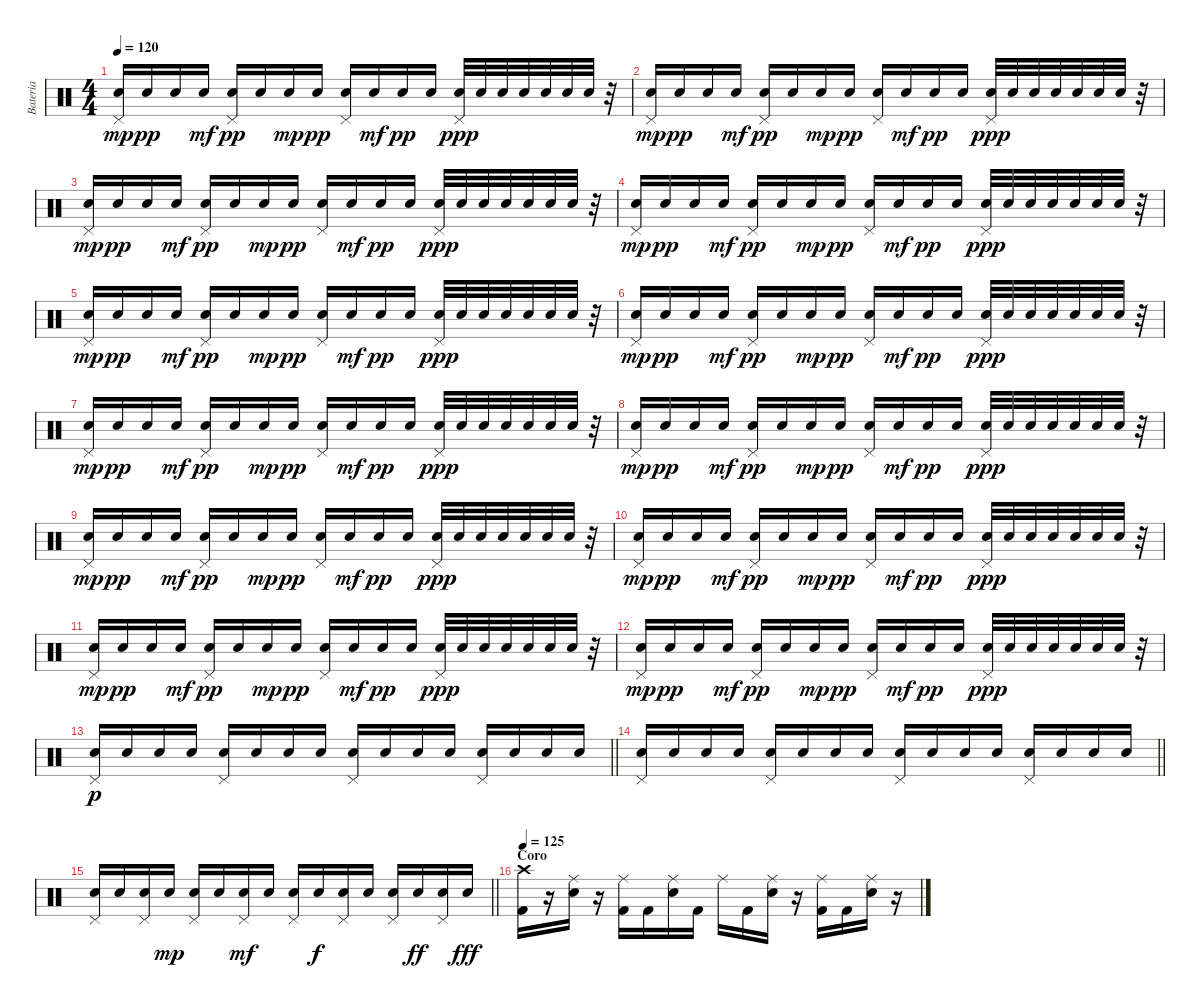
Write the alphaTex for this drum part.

\track ("Bateria" "Bateria") {instrument percussion}
\staff {score}
\articulation defaults
\ts (4 4)
\tempo 120
\clef neutral
\ks c
("Pedal Hi-Hat (hit)" "Electric Snare (hit)").16{dy mp} "Electric Snare (hit)".16{dy pp} "Electric Snare (hit)".16 "Electric Snare (hit)".16{dy mf} ("Pedal Hi-Hat (hit)" "Electric Snare (hit)").16{dy pp} "Electric Snare (hit)".16 "Electric Snare (hit)".16{dy mp} "Electric Snare (hit)".16{dy pp} ("Pedal Hi-Hat (hit)" "Electric Snare (hit)").16 "Electric Snare (hit)".16{dy mf} "Electric Snare (hit)".16{dy pp} "Electric Snare (hit)".16 ("Pedal Hi-Hat (hit)" "Electric Snare (hit)").32{dy ppp} "Electric Snare (hit)".32 "Electric Snare (hit)".32 "Electric Snare (hit)".32 "Electric Snare (hit)".32 "Electric Snare (hit)".32 "Electric Snare (hit)".32 r.32 |
("Pedal Hi-Hat (hit)" "Electric Snare (hit)").16{dy mp} "Electric Snare (hit)".16{dy pp} "Electric Snare (hit)".16 "Electric Snare (hit)".16{dy mf} ("Pedal Hi-Hat (hit)" "Electric Snare (hit)").16{dy pp} "Electric Snare (hit)".16 "Electric Snare (hit)".16{dy mp} "Electric Snare (hit)".16{dy pp} ("Pedal Hi-Hat (hit)" "Electric Snare (hit)").16 "Electric Snare (hit)".16{dy mf} "Electric Snare (hit)".16{dy pp} "Electric Snare (hit)".16 ("Pedal Hi-Hat (hit)" "Electric Snare (hit)").32{dy ppp} "Electric Snare (hit)".32 "Electric Snare (hit)".32 "Electric Snare (hit)".32 "Electric Snare (hit)".32 "Electric Snare (hit)".32 "Electric Snare (hit)".32 r.32 |
("Pedal Hi-Hat (hit)" "Electric Snare (hit)").16{dy mp} "Electric Snare (hit)".16{dy pp} "Electric Snare (hit)".16 "Electric Snare (hit)".16{dy mf} ("Pedal Hi-Hat (hit)" "Electric Snare (hit)").16{dy pp} "Electric Snare (hit)".16 "Electric Snare (hit)".16{dy mp} "Electric Snare (hit)".16{dy pp} ("Pedal Hi-Hat (hit)" "Electric Snare (hit)").16 "Electric Snare (hit)".16{dy mf} "Electric Snare (hit)".16{dy pp} "Electric Snare (hit)".16 ("Pedal Hi-Hat (hit)" "Electric Snare (hit)").32{dy ppp} "Electric Snare (hit)".32 "Electric Snare (hit)".32 "Electric Snare (hit)".32 "Electric Snare (hit)".32 "Electric Snare (hit)".32 "Electric Snare (hit)".32 r.32 |
("Pedal Hi-Hat (hit)" "Electric Snare (hit)").16{dy mp} "Electric Snare (hit)".16{dy pp} "Electric Snare (hit)".16 "Electric Snare (hit)".16{dy mf} ("Pedal Hi-Hat (hit)" "Electric Snare (hit)").16{dy pp} "Electric Snare (hit)".16 "Electric Snare (hit)".16{dy mp} "Electric Snare (hit)".16{dy pp} ("Pedal Hi-Hat (hit)" "Electric Snare (hit)").16 "Electric Snare (hit)".16{dy mf} "Electric Snare (hit)".16{dy pp} "Electric Snare (hit)".16 ("Pedal Hi-Hat (hit)" "Electric Snare (hit)").32{dy ppp} "Electric Snare (hit)".32 "Electric Snare (hit)".32 "Electric Snare (hit)".32 "Electric Snare (hit)".32 "Electric Snare (hit)".32 "Electric Snare (hit)".32 r.32 |
("Pedal Hi-Hat (hit)" "Electric Snare (hit)").16{dy mp} "Electric Snare (hit)".16{dy pp} "Electric Snare (hit)".16 "Electric Snare (hit)".16{dy mf} ("Pedal Hi-Hat (hit)" "Electric Snare (hit)").16{dy pp} "Electric Snare (hit)".16 "Electric Snare (hit)".16{dy mp} "Electric Snare (hit)".16{dy pp} ("Pedal Hi-Hat (hit)" "Electric Snare (hit)").16 "Electric Snare (hit)".16{dy mf} "Electric Snare (hit)".16{dy pp} "Electric Snare (hit)".16 ("Pedal Hi-Hat (hit)" "Electric Snare (hit)").32{dy ppp} "Electric Snare (hit)".32 "Electric Snare (hit)".32 "Electric Snare (hit)".32 "Electric Snare (hit)".32 "Electric Snare (hit)".32 "Electric Snare (hit)".32 r.32 |
("Pedal Hi-Hat (hit)" "Electric Snare (hit)").16{dy mp} "Electric Snare (hit)".16{dy pp} "Electric Snare (hit)".16 "Electric Snare (hit)".16{dy mf} ("Pedal Hi-Hat (hit)" "Electric Snare (hit)").16{dy pp} "Electric Snare (hit)".16 "Electric Snare (hit)".16{dy mp} "Electric Snare (hit)".16{dy pp} ("Pedal Hi-Hat (hit)" "Electric Snare (hit)").16 "Electric Snare (hit)".16{dy mf} "Electric Snare (hit)".16{dy pp} "Electric Snare (hit)".16 ("Pedal Hi-Hat (hit)" "Electric Snare (hit)").32{dy ppp} "Electric Snare (hit)".32 "Electric Snare (hit)".32 "Electric Snare (hit)".32 "Electric Snare (hit)".32 "Electric Snare (hit)".32 "Electric Snare (hit)".32 r.32 |
("Pedal Hi-Hat (hit)" "Electric Snare (hit)").16{dy mp} "Electric Snare (hit)".16{dy pp} "Electric Snare (hit)".16 "Electric Snare (hit)".16{dy mf} ("Pedal Hi-Hat (hit)" "Electric Snare (hit)").16{dy pp} "Electric Snare (hit)".16 "Electric Snare (hit)".16{dy mp} "Electric Snare (hit)".16{dy pp} ("Pedal Hi-Hat (hit)" "Electric Snare (hit)").16 "Electric Snare (hit)".16{dy mf} "Electric Snare (hit)".16{dy pp} "Electric Snare (hit)".16 ("Pedal Hi-Hat (hit)" "Electric Snare (hit)").32{dy ppp} "Electric Snare (hit)".32 "Electric Snare (hit)".32 "Electric Snare (hit)".32 "Electric Snare (hit)".32 "Electric Snare (hit)".32 "Electric Snare (hit)".32 r.32 |
("Pedal Hi-Hat (hit)" "Electric Snare (hit)").16{dy mp} "Electric Snare (hit)".16{dy pp} "Electric Snare (hit)".16 "Electric Snare (hit)".16{dy mf} ("Pedal Hi-Hat (hit)" "Electric Snare (hit)").16{dy pp} "Electric Snare (hit)".16 "Electric Snare (hit)".16{dy mp} "Electric Snare (hit)".16{dy pp} ("Pedal Hi-Hat (hit)" "Electric Snare (hit)").16 "Electric Snare (hit)".16{dy mf} "Electric Snare (hit)".16{dy pp} "Electric Snare (hit)".16 ("Pedal Hi-Hat (hit)" "Electric Snare (hit)").32{dy ppp} "Electric Snare (hit)".32 "Electric Snare (hit)".32 "Electric Snare (hit)".32 "Electric Snare (hit)".32 "Electric Snare (hit)".32 "Electric Snare (hit)".32 r.32 |
("Pedal Hi-Hat (hit)" "Electric Snare (hit)").16{dy mp} "Electric Snare (hit)".16{dy pp} "Electric Snare (hit)".16 "Electric Snare (hit)".16{dy mf} ("Pedal Hi-Hat (hit)" "Electric Snare (hit)").16{dy pp} "Electric Snare (hit)".16 "Electric Snare (hit)".16{dy mp} "Electric Snare (hit)".16{dy pp} ("Pedal Hi-Hat (hit)" "Electric Snare (hit)").16 "Electric Snare (hit)".16{dy mf} "Electric Snare (hit)".16{dy pp} "Electric Snare (hit)".16 ("Pedal Hi-Hat (hit)" "Electric Snare (hit)").32{dy ppp} "Electric Snare (hit)".32 "Electric Snare (hit)".32 "Electric Snare (hit)".32 "Electric Snare (hit)".32 "Electric Snare (hit)".32 "Electric Snare (hit)".32 r.32 |
("Pedal Hi-Hat (hit)" "Electric Snare (hit)").16{dy mp} "Electric Snare (hit)".16{dy pp} "Electric Snare (hit)".16 "Electric Snare (hit)".16{dy mf} ("Pedal Hi-Hat (hit)" "Electric Snare (hit)").16{dy pp} "Electric Snare (hit)".16 "Electric Snare (hit)".16{dy mp} "Electric Snare (hit)".16{dy pp} ("Pedal Hi-Hat (hit)" "Electric Snare (hit)").16 "Electric Snare (hit)".16{dy mf} "Electric Snare (hit)".16{dy pp} "Electric Snare (hit)".16 ("Pedal Hi-Hat (hit)" "Electric Snare (hit)").32{dy ppp} "Electric Snare (hit)".32 "Electric Snare (hit)".32 "Electric Snare (hit)".32 "Electric Snare (hit)".32 "Electric Snare (hit)".32 "Electric Snare (hit)".32 r.32 |
("Pedal Hi-Hat (hit)" "Electric Snare (hit)").16{dy mp} "Electric Snare (hit)".16{dy pp} "Electric Snare (hit)".16 "Electric Snare (hit)".16{dy mf} ("Pedal Hi-Hat (hit)" "Electric Snare (hit)").16{dy pp} "Electric Snare (hit)".16 "Electric Snare (hit)".16{dy mp} "Electric Snare (hit)".16{dy pp} ("Pedal Hi-Hat (hit)" "Electric Snare (hit)").16 "Electric Snare (hit)".16{dy mf} "Electric Snare (hit)".16{dy pp} "Electric Snare (hit)".16 ("Pedal Hi-Hat (hit)" "Electric Snare (hit)").32{dy ppp} "Electric Snare (hit)".32 "Electric Snare (hit)".32 "Electric Snare (hit)".32 "Electric Snare (hit)".32 "Electric Snare (hit)".32 "Electric Snare (hit)".32 r.32 |
("Pedal Hi-Hat (hit)" "Electric Snare (hit)").16{dy mp} "Electric Snare (hit)".16{dy pp} "Electric Snare (hit)".16 "Electric Snare (hit)".16{dy mf} ("Pedal Hi-Hat (hit)" "Electric Snare (hit)").16{dy pp} "Electric Snare (hit)".16 "Electric Snare (hit)".16{dy mp} "Electric Snare (hit)".16{dy pp} ("Pedal Hi-Hat (hit)" "Electric Snare (hit)").16 "Electric Snare (hit)".16{dy mf} "Electric Snare (hit)".16{dy pp} "Electric Snare (hit)".16 ("Pedal Hi-Hat (hit)" "Electric Snare (hit)").32{dy ppp} "Electric Snare (hit)".32 "Electric Snare (hit)".32 "Electric Snare (hit)".32 "Electric Snare (hit)".32 "Electric Snare (hit)".32 "Electric Snare (hit)".32 r.32 |
\barLineRight lightlight
("Pedal Hi-Hat (hit)" "Electric Snare (hit)").16{dy p} "Electric Snare (hit)".16 "Electric Snare (hit)".16 "Electric Snare (hit)".16 ("Pedal Hi-Hat (hit)" "Electric Snare (hit)").16 "Electric Snare (hit)".16 "Electric Snare (hit)".16 "Electric Snare (hit)".16 ("Pedal Hi-Hat (hit)" "Electric Snare (hit)").16 "Electric Snare (hit)".16 "Electric Snare (hit)".16 "Electric Snare (hit)".16 ("Pedal Hi-Hat (hit)" "Electric Snare (hit)").16 "Electric Snare (hit)".16 "Electric Snare (hit)".16 "Electric Snare (hit)".16 |
\barLineRight lightlight
("Pedal Hi-Hat (hit)" "Electric Snare (hit)").16 "Electric Snare (hit)".16 "Electric Snare (hit)".16 "Electric Snare (hit)".16 ("Pedal Hi-Hat (hit)" "Electric Snare (hit)").16 "Electric Snare (hit)".16 "Electric Snare (hit)".16 "Electric Snare (hit)".16 ("Pedal Hi-Hat (hit)" "Electric Snare (hit)").16 "Electric Snare (hit)".16 "Electric Snare (hit)".16 "Electric Snare (hit)".16 ("Pedal Hi-Hat (hit)" "Electric Snare (hit)").16 "Electric Snare (hit)".16 "Electric Snare (hit)".16 "Electric Snare (hit)".16 |
\barLineRight lightlight
("Pedal Hi-Hat (hit)" "Electric Snare (hit)").16 "Electric Snare (hit)".16 ("Pedal Hi-Hat (hit)" "Electric Snare (hit)").16 "Electric Snare (hit)".16{dy mp} ("Pedal Hi-Hat (hit)" "Electric Snare (hit)").16 "Electric Snare (hit)".16 ("Pedal Hi-Hat (hit)" "Electric Snare (hit)").16{dy mf} "Electric Snare (hit)".16 ("Pedal Hi-Hat (hit)" "Electric Snare (hit)").16 "Electric Snare (hit)".16{dy f} ("Pedal Hi-Hat (hit)" "Electric Snare (hit)").16 "Electric Snare (hit)".16 ("Pedal Hi-Hat (hit)" "Electric Snare (hit)").16 "Electric Snare (hit)".16{dy ff} ("Pedal Hi-Hat (hit)" "Electric Snare (hit)").16 "Electric Snare (hit)".16{dy fff} |
\section ("" "Coro")
\tempo 125
("Crash high (hit)" "Kick (hit) 2").16 r.16 ("Ride (middle)" "Electric Snare (hit)").16 r.16 ("Ride (middle)" "Kick (hit) 2").16 "Kick (hit) 2".16 ("Ride (middle)" "Electric Snare (hit)").16 "Kick (hit) 2".16 "Ride (middle)".16 "Kick (hit) 2".16 ("Ride (middle)" "Electric Snare (hit)").16 r.16 ("Ride (middle)" "Kick (hit) 2").16 "Kick (hit) 2".16 ("Ride (middle)" "Electric Snare (hit)").16 r.16
